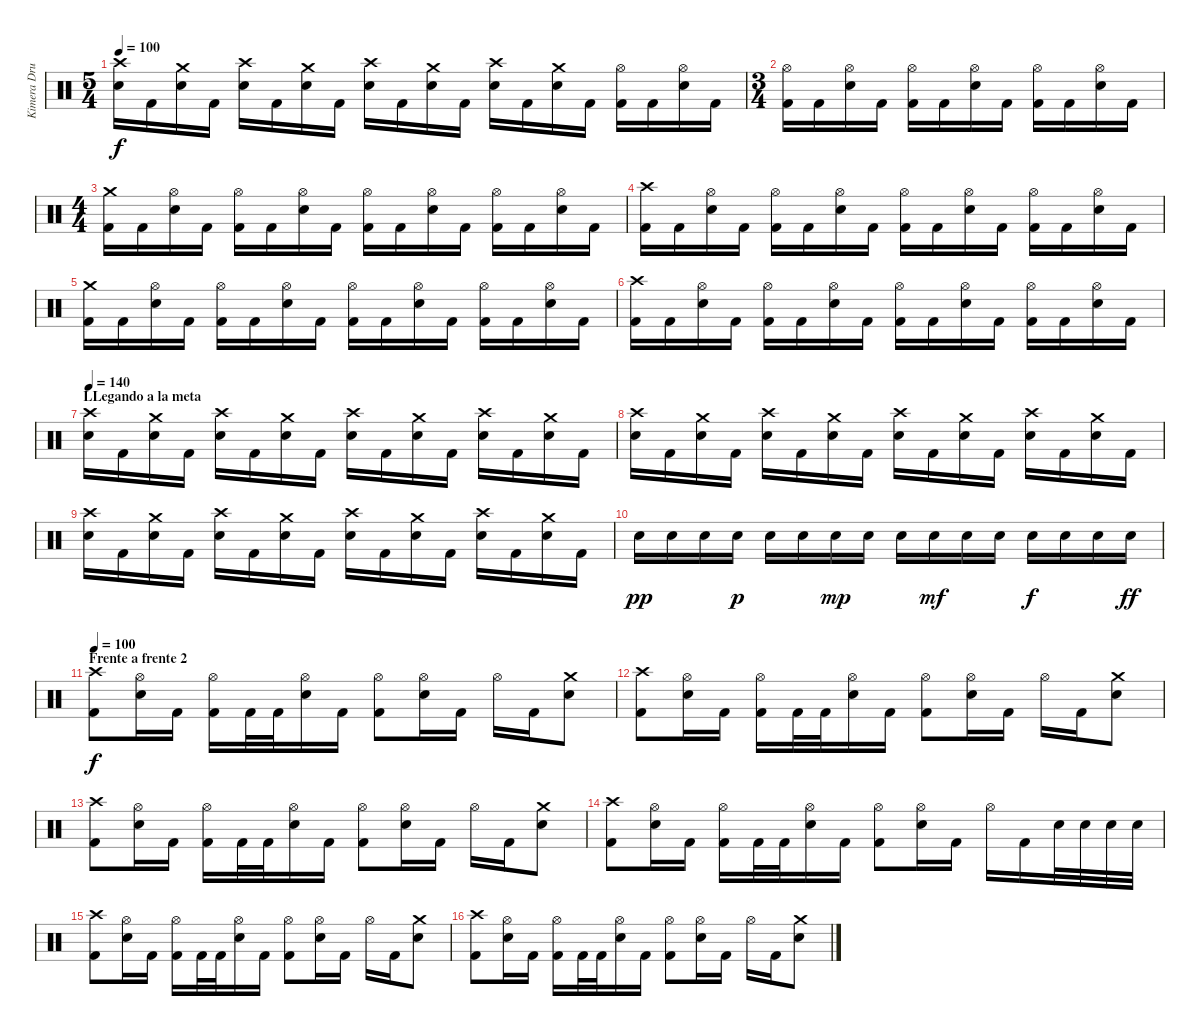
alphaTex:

\track ("Kimera Drummer" "Kimera Dru") {instrument percussion}
\staff {score}
\articulation defaults
\ts (5 4)
\tempo 100
\clef neutral
\ks c
("Crash high (hit)" "Electric Snare (hit)").16{dy f} "Kick (hit) 2".16 ("Crash medium (hit)" "Electric Snare (hit)").16 "Kick (hit) 2".16 ("Crash high (hit)" "Electric Snare (hit)").16 "Kick (hit) 2".16 ("Crash medium (hit)" "Electric Snare (hit)").16 "Kick (hit) 2".16 ("Crash high (hit)" "Electric Snare (hit)").16 "Kick (hit) 2".16 ("Crash medium (hit)" "Electric Snare (hit)").16 "Kick (hit) 2".16 ("Crash high (hit)" "Electric Snare (hit)").16 "Kick (hit) 2".16 ("Crash medium (hit)" "Electric Snare (hit)").16 "Kick (hit) 2".16 ("Hi-Hat (open)" "Kick (hit) 2").16 "Kick (hit) 2".16 ("Hi-Hat (open)" "Electric Snare (hit)").16 "Kick (hit) 2".16 |
\ts (3 4)
("Hi-Hat (open)" "Kick (hit) 2").16 "Kick (hit) 2".16 ("Hi-Hat (open)" "Electric Snare (hit)").16 "Kick (hit) 2".16 ("Hi-Hat (open)" "Kick (hit) 2").16 "Kick (hit) 2".16 ("Hi-Hat (open)" "Electric Snare (hit)").16 "Kick (hit) 2".16 ("Hi-Hat (open)" "Kick (hit) 2").16 "Kick (hit) 2".16 ("Hi-Hat (open)" "Electric Snare (hit)").16 "Kick (hit) 2".16 |
\ts (4 4)
("Crash medium (hit)" "Kick (hit) 2").16 "Kick (hit) 2".16 ("Hi-Hat (open)" "Electric Snare (hit)").16 "Kick (hit) 2".16 ("Hi-Hat (open)" "Kick (hit) 2").16 "Kick (hit) 2".16 ("Hi-Hat (open)" "Electric Snare (hit)").16 "Kick (hit) 2".16 ("Hi-Hat (open)" "Kick (hit) 2").16 "Kick (hit) 2".16 ("Hi-Hat (open)" "Electric Snare (hit)").16 "Kick (hit) 2".16 ("Hi-Hat (open)" "Kick (hit) 2").16 "Kick (hit) 2".16 ("Hi-Hat (open)" "Electric Snare (hit)").16 "Kick (hit) 2".16 |
("Crash high (hit)" "Kick (hit) 2").16 "Kick (hit) 2".16 ("Hi-Hat (open)" "Electric Snare (hit)").16 "Kick (hit) 2".16 ("Hi-Hat (open)" "Kick (hit) 2").16 "Kick (hit) 2".16 ("Hi-Hat (open)" "Electric Snare (hit)").16 "Kick (hit) 2".16 ("Hi-Hat (open)" "Kick (hit) 2").16 "Kick (hit) 2".16 ("Hi-Hat (open)" "Electric Snare (hit)").16 "Kick (hit) 2".16 ("Hi-Hat (open)" "Kick (hit) 2").16 "Kick (hit) 2".16 ("Hi-Hat (open)" "Electric Snare (hit)").16 "Kick (hit) 2".16 |
("Crash medium (hit)" "Kick (hit) 2").16 "Kick (hit) 2".16 ("Hi-Hat (open)" "Electric Snare (hit)").16 "Kick (hit) 2".16 ("Hi-Hat (open)" "Kick (hit) 2").16 "Kick (hit) 2".16 ("Hi-Hat (open)" "Electric Snare (hit)").16 "Kick (hit) 2".16 ("Hi-Hat (open)" "Kick (hit) 2").16 "Kick (hit) 2".16 ("Hi-Hat (open)" "Electric Snare (hit)").16 "Kick (hit) 2".16 ("Hi-Hat (open)" "Kick (hit) 2").16 "Kick (hit) 2".16 ("Hi-Hat (open)" "Electric Snare (hit)").16 "Kick (hit) 2".16 |
("Crash high (hit)" "Kick (hit) 2").16 "Kick (hit) 2".16 ("Hi-Hat (open)" "Electric Snare (hit)").16 "Kick (hit) 2".16 ("Hi-Hat (open)" "Kick (hit) 2").16 "Kick (hit) 2".16 ("Hi-Hat (open)" "Electric Snare (hit)").16 "Kick (hit) 2".16 ("Hi-Hat (open)" "Kick (hit) 2").16 "Kick (hit) 2".16 ("Hi-Hat (open)" "Electric Snare (hit)").16 "Kick (hit) 2".16 ("Hi-Hat (open)" "Kick (hit) 2").16 "Kick (hit) 2".16 ("Hi-Hat (open)" "Electric Snare (hit)").16 "Kick (hit) 2".16 |
\section ("" "LLegando a la meta ")
\tempo 140
("Crash high (hit)" "Electric Snare (hit)").16 "Kick (hit) 2".16 ("Crash medium (hit)" "Electric Snare (hit)").16 "Kick (hit) 2".16 ("Crash high (hit)" "Electric Snare (hit)").16 "Kick (hit) 2".16 ("Crash medium (hit)" "Electric Snare (hit)").16 "Kick (hit) 2".16 ("Crash high (hit)" "Electric Snare (hit)").16 "Kick (hit) 2".16 ("Crash medium (hit)" "Electric Snare (hit)").16 "Kick (hit) 2".16 ("Crash high (hit)" "Electric Snare (hit)").16 "Kick (hit) 2".16 ("Crash medium (hit)" "Electric Snare (hit)").16 "Kick (hit) 2".16 |
("Crash high (hit)" "Electric Snare (hit)").16 "Kick (hit) 2".16 ("Crash medium (hit)" "Electric Snare (hit)").16 "Kick (hit) 2".16 ("Crash high (hit)" "Electric Snare (hit)").16 "Kick (hit) 2".16 ("Crash medium (hit)" "Electric Snare (hit)").16 "Kick (hit) 2".16 ("Crash high (hit)" "Electric Snare (hit)").16 "Kick (hit) 2".16 ("Crash medium (hit)" "Electric Snare (hit)").16 "Kick (hit) 2".16 ("Crash high (hit)" "Electric Snare (hit)").16 "Kick (hit) 2".16 ("Crash medium (hit)" "Electric Snare (hit)").16 "Kick (hit) 2".16 |
("Crash high (hit)" "Electric Snare (hit)").16 "Kick (hit) 2".16 ("Crash medium (hit)" "Electric Snare (hit)").16 "Kick (hit) 2".16 ("Crash high (hit)" "Electric Snare (hit)").16 "Kick (hit) 2".16 ("Crash medium (hit)" "Electric Snare (hit)").16 "Kick (hit) 2".16 ("Crash high (hit)" "Electric Snare (hit)").16 "Kick (hit) 2".16 ("Crash medium (hit)" "Electric Snare (hit)").16 "Kick (hit) 2".16 ("Crash high (hit)" "Electric Snare (hit)").16 "Kick (hit) 2".16 ("Crash medium (hit)" "Electric Snare (hit)").16 "Kick (hit) 2".16 |
"Electric Snare (hit)".16{dy pp} "Electric Snare (hit)".16 "Electric Snare (hit)".16 "Electric Snare (hit)".16{dy p} "Electric Snare (hit)".16 "Electric Snare (hit)".16 "Electric Snare (hit)".16{dy mp} "Electric Snare (hit)".16 "Electric Snare (hit)".16 "Electric Snare (hit)".16{dy mf} "Electric Snare (hit)".16 "Electric Snare (hit)".16 "Electric Snare (hit)".16{dy f} "Electric Snare (hit)".16 "Electric Snare (hit)".16 "Electric Snare (hit)".16{dy ff} |
\section ("" "Frente a frente 2")
\tempo 100
("Crash high (hit)" "Kick (hit) 2").8{dy f} ("Hi-Hat (open)" "Electric Snare (hit)").16 "Kick (hit) 2".16 ("Hi-Hat (open)" "Kick (hit) 2").16 "Kick (hit) 2".32 "Kick (hit) 2".32 ("Hi-Hat (open)" "Electric Snare (hit)").16 "Kick (hit) 2".16 ("Hi-Hat (open)" "Kick (hit) 2").8 ("Hi-Hat (open)" "Electric Snare (hit)").16 "Kick (hit) 2".16 "Hi-Hat (open)".16 "Kick (hit) 2".16 ("Crash medium (hit)" "Electric Snare (hit)").8 |
("Crash high (hit)" "Kick (hit) 2").8 ("Hi-Hat (open)" "Electric Snare (hit)").16 "Kick (hit) 2".16 ("Hi-Hat (open)" "Kick (hit) 2").16 "Kick (hit) 2".32 "Kick (hit) 2".32 ("Hi-Hat (open)" "Electric Snare (hit)").16 "Kick (hit) 2".16 ("Hi-Hat (open)" "Kick (hit) 2").8 ("Hi-Hat (open)" "Electric Snare (hit)").16 "Kick (hit) 2".16 "Hi-Hat (open)".16 "Kick (hit) 2".16 ("Crash medium (hit)" "Electric Snare (hit)").8 |
("Crash high (hit)" "Kick (hit) 2").8 ("Hi-Hat (open)" "Electric Snare (hit)").16 "Kick (hit) 2".16 ("Hi-Hat (open)" "Kick (hit) 2").16 "Kick (hit) 2".32 "Kick (hit) 2".32 ("Hi-Hat (open)" "Electric Snare (hit)").16 "Kick (hit) 2".16 ("Hi-Hat (open)" "Kick (hit) 2").8 ("Hi-Hat (open)" "Electric Snare (hit)").16 "Kick (hit) 2".16 "Hi-Hat (open)".16 "Kick (hit) 2".16 ("Crash medium (hit)" "Electric Snare (hit)").8 |
("Crash high (hit)" "Kick (hit) 2").8 ("Hi-Hat (open)" "Electric Snare (hit)").16 "Kick (hit) 2".16 ("Hi-Hat (open)" "Kick (hit) 2").16 "Kick (hit) 2".32 "Kick (hit) 2".32 ("Hi-Hat (open)" "Electric Snare (hit)").16 "Kick (hit) 2".16 ("Hi-Hat (open)" "Kick (hit) 2").8 ("Hi-Hat (open)" "Electric Snare (hit)").16 "Kick (hit) 2".16 "Hi-Hat (open)".16 "Kick (hit) 2".16 "Electric Snare (hit)".32 "Electric Snare (hit)".32 "Electric Snare (hit)".32 "Electric Snare (hit)".32 |
("Crash high (hit)" "Kick (hit) 2").8 ("Hi-Hat (open)" "Electric Snare (hit)").16 "Kick (hit) 2".16 ("Hi-Hat (open)" "Kick (hit) 2").16 "Kick (hit) 2".32 "Kick (hit) 2".32 ("Hi-Hat (open)" "Electric Snare (hit)").16 "Kick (hit) 2".16 ("Hi-Hat (open)" "Kick (hit) 2").8 ("Hi-Hat (open)" "Electric Snare (hit)").16 "Kick (hit) 2".16 "Hi-Hat (open)".16 "Kick (hit) 2".16 ("Crash medium (hit)" "Electric Snare (hit)").8 |
("Crash high (hit)" "Kick (hit) 2").8 ("Hi-Hat (open)" "Electric Snare (hit)").16 "Kick (hit) 2".16 ("Hi-Hat (open)" "Kick (hit) 2").16 "Kick (hit) 2".32 "Kick (hit) 2".32 ("Hi-Hat (open)" "Electric Snare (hit)").16 "Kick (hit) 2".16 ("Hi-Hat (open)" "Kick (hit) 2").8 ("Hi-Hat (open)" "Electric Snare (hit)").16 "Kick (hit) 2".16 "Hi-Hat (open)".16 "Kick (hit) 2".16 ("Crash medium (hit)" "Electric Snare (hit)").8
